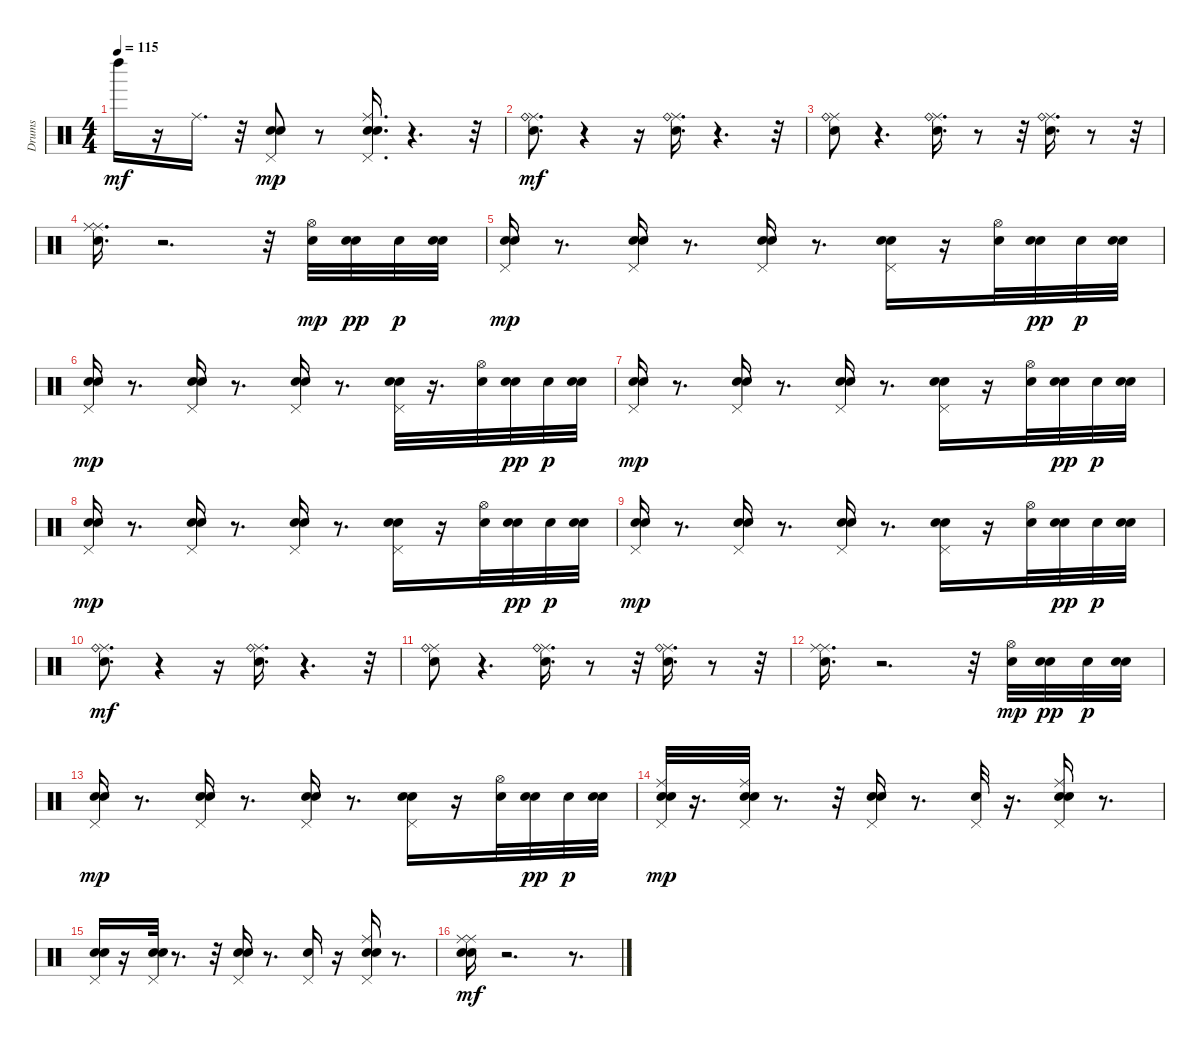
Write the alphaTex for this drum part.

\track ("Drums" "Drums") {instrument percussion}
\staff {score}
\articulation defaults
\ts (4 4)
\tempo 115
\clef neutral
\ks c "Left Maraca (hit)".16{dy mf}
r.16 "Ride (middle)".16{d} r.32 ("Snare (hit) 2" "Snare (hit) 2" "Pedal Hi-Hat (hit)").8{dy mp} r.8 ("Snare (hit) 2" "Snare (hit) 2" "Pedal Hi-Hat (hit)" "Ride (middle)").16{d} r.4{d} r.32 |
("Snare (hit) 2" "Ride (middle)" "Ride (bell)").8{d dy mf} r.4 r.16 ("Snare (hit) 2" "Ride (middle)" "Ride (bell)").16{d} r.4{d} r.32 |
("Snare (hit) 2" "Ride (middle)" "Ride (bell)").8 r.4{d} ("Snare (hit) 2" "Ride (middle)" "Ride (bell)").16{d} r.8 r.32 ("Snare (hit) 2" "Ride (middle)" "Ride (bell)").16{d} r.8 r.32 |
("Snare (hit) 2" "Ride (middle)" "Ride (middle)").16{d} r.2{d} r.32 ("Snare (hit) 2" "Hi-Hat (open)").32{dy mp} ("Snare (hit) 2" "Snare (hit) 2").32{dy pp} "Snare (hit) 2".32{dy p} ("Snare (hit) 2" "Snare (hit) 2").32 |
("Snare (hit) 2" "Snare (hit) 2" "Pedal Hi-Hat (hit)").16{dy mp} r.8{d} ("Snare (hit) 2" "Snare (hit) 2" "Pedal Hi-Hat (hit)").16 r.8{d} ("Snare (hit) 2" "Snare (hit) 2" "Pedal Hi-Hat (hit)").16 r.8{d} ("Snare (hit) 2" "Snare (hit) 2" "Pedal Hi-Hat (hit)").16 r.16 ("Snare (hit) 2" "Hi-Hat (open)").32 ("Snare (hit) 2" "Snare (hit) 2").32{dy pp} "Snare (hit) 2".32{dy p} ("Snare (hit) 2" "Snare (hit) 2").32 |
("Snare (hit) 2" "Snare (hit) 2" "Pedal Hi-Hat (hit)").16{dy mp} r.8{d} ("Snare (hit) 2" "Snare (hit) 2" "Pedal Hi-Hat (hit)").16 r.8{d} ("Snare (hit) 2" "Snare (hit) 2" "Pedal Hi-Hat (hit)").16 r.8{d} ("Snare (hit) 2" "Snare (hit) 2" "Pedal Hi-Hat (hit)").32 r.16{d} ("Snare (hit) 2" "Hi-Hat (open)").32 ("Snare (hit) 2" "Snare (hit) 2").32{dy pp} "Snare (hit) 2".32{dy p} ("Snare (hit) 2" "Snare (hit) 2").32 |
("Snare (hit) 2" "Snare (hit) 2" "Pedal Hi-Hat (hit)").16{dy mp} r.8{d} ("Snare (hit) 2" "Snare (hit) 2" "Pedal Hi-Hat (hit)").16 r.8{d} ("Snare (hit) 2" "Snare (hit) 2" "Pedal Hi-Hat (hit)").16 r.8{d} ("Snare (hit) 2" "Snare (hit) 2" "Pedal Hi-Hat (hit)").16 r.16 ("Snare (hit) 2" "Hi-Hat (open)").32 ("Snare (hit) 2" "Snare (hit) 2").32{dy pp} "Snare (hit) 2".32{dy p} ("Snare (hit) 2" "Snare (hit) 2").32 |
("Snare (hit) 2" "Snare (hit) 2" "Pedal Hi-Hat (hit)").16{dy mp} r.8{d} ("Snare (hit) 2" "Snare (hit) 2" "Pedal Hi-Hat (hit)").16 r.8{d} ("Snare (hit) 2" "Snare (hit) 2" "Pedal Hi-Hat (hit)").16 r.8{d} ("Snare (hit) 2" "Snare (hit) 2" "Pedal Hi-Hat (hit)").16 r.16 ("Snare (hit) 2" "Hi-Hat (open)").32 ("Snare (hit) 2" "Snare (hit) 2").32{dy pp} "Snare (hit) 2".32{dy p} ("Snare (hit) 2" "Snare (hit) 2").32 |
("Snare (hit) 2" "Snare (hit) 2" "Pedal Hi-Hat (hit)").16{dy mp} r.8{d} ("Snare (hit) 2" "Snare (hit) 2" "Pedal Hi-Hat (hit)").16 r.8{d} ("Snare (hit) 2" "Snare (hit) 2" "Pedal Hi-Hat (hit)").16 r.8{d} ("Snare (hit) 2" "Snare (hit) 2" "Pedal Hi-Hat (hit)").16 r.16 ("Snare (hit) 2" "Hi-Hat (open)").32 ("Snare (hit) 2" "Snare (hit) 2").32{dy pp} "Snare (hit) 2".32{dy p} ("Snare (hit) 2" "Snare (hit) 2").32 |
("Snare (hit) 2" "Ride (middle)" "Ride (bell)").8{d dy mf} r.4 r.16 ("Snare (hit) 2" "Ride (middle)" "Ride (bell)").16{d} r.4{d} r.32 |
("Snare (hit) 2" "Ride (middle)" "Ride (bell)").8 r.4{d} ("Snare (hit) 2" "Ride (middle)" "Ride (bell)").16{d} r.8 r.32 ("Snare (hit) 2" "Ride (middle)" "Ride (bell)").16{d} r.8 r.32 |
("Snare (hit) 2" "Ride (middle)" "Ride (middle)").16{d} r.2{d} r.32 ("Snare (hit) 2" "Hi-Hat (open)").32{dy mp} ("Snare (hit) 2" "Snare (hit) 2").32{dy pp} "Snare (hit) 2".32{dy p} ("Snare (hit) 2" "Snare (hit) 2").32 |
("Snare (hit) 2" "Snare (hit) 2" "Pedal Hi-Hat (hit)").16{dy mp} r.8{d} ("Snare (hit) 2" "Snare (hit) 2" "Pedal Hi-Hat (hit)").16 r.8{d} ("Snare (hit) 2" "Snare (hit) 2" "Pedal Hi-Hat (hit)").16 r.8{d} ("Snare (hit) 2" "Snare (hit) 2" "Pedal Hi-Hat (hit)").16 r.16 ("Snare (hit) 2" "Hi-Hat (open)").32 ("Snare (hit) 2" "Snare (hit) 2").32{dy pp} "Snare (hit) 2".32{dy p} ("Snare (hit) 2" "Snare (hit) 2").32 |
("Snare (hit) 2" "Snare (hit) 2" "Pedal Hi-Hat (hit)" "Ride (middle)").32{dy mp} r.16{d} ("Snare (hit) 2" "Snare (hit) 2" "Pedal Hi-Hat (hit)" "Ride (middle)").32 r.8{d} r.32 ("Snare (hit) 2" "Snare (hit) 2" "Pedal Hi-Hat (hit)").16 r.8{d} ("Snare (hit) 2" "Pedal Hi-Hat (hit)").32 r.16{d} ("Snare (hit) 2" "Snare (hit) 2" "Pedal Hi-Hat (hit)" "Ride (middle)").16 r.8{d} |
("Snare (hit) 2" "Snare (hit) 2" "Pedal Hi-Hat (hit)").16 r.16 ("Snare (hit) 2" "Snare (hit) 2" "Pedal Hi-Hat (hit)").32 r.8{d} r.32 ("Snare (hit) 2" "Snare (hit) 2" "Pedal Hi-Hat (hit)").16 r.8{d} ("Snare (hit) 2" "Pedal Hi-Hat (hit)").16 r.16 ("Snare (hit) 2" "Snare (hit) 2" "Pedal Hi-Hat (hit)" "Ride (middle)").16 r.8{d} |
("Snare (hit) 2" "Snare (hit) 2" "Ride (middle)" "Ride (middle)").16{dy mf} r.2{d} r.8{d}
